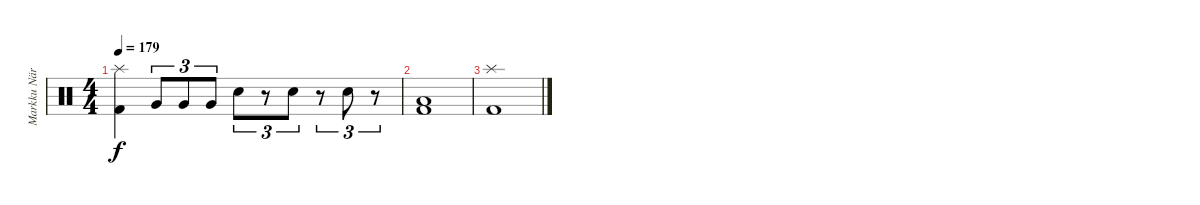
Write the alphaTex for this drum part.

\track ("Markku Näreneva (Drums)" "Markku När") {instrument percussion}
\staff {score}
\articulation defaults
\ts (4 4)
\tempo 179
\clef neutral
\ks c
("Kick (hit) 2" "Splash (hit)").4{dy f} "Very Low Tom (hit)".8{tu (3 2)} "Very Low Tom (hit)".8{tu (3 2)} "Very Low Tom (hit)".8{tu (3 2)} "Snare (hit) 2".8{tu (3 2)} r.8{tu (3 2)} "Snare (hit) 2".8{tu (3 2)} r.8{tu (3 2)} "Snare (hit) 2".8{tu (3 2)} r.8{tu (3 2)} |
("Kick (hit) 2" "Low Tom (hit)").1 |
("Kick (hit) 2" "Splash (hit)").1
